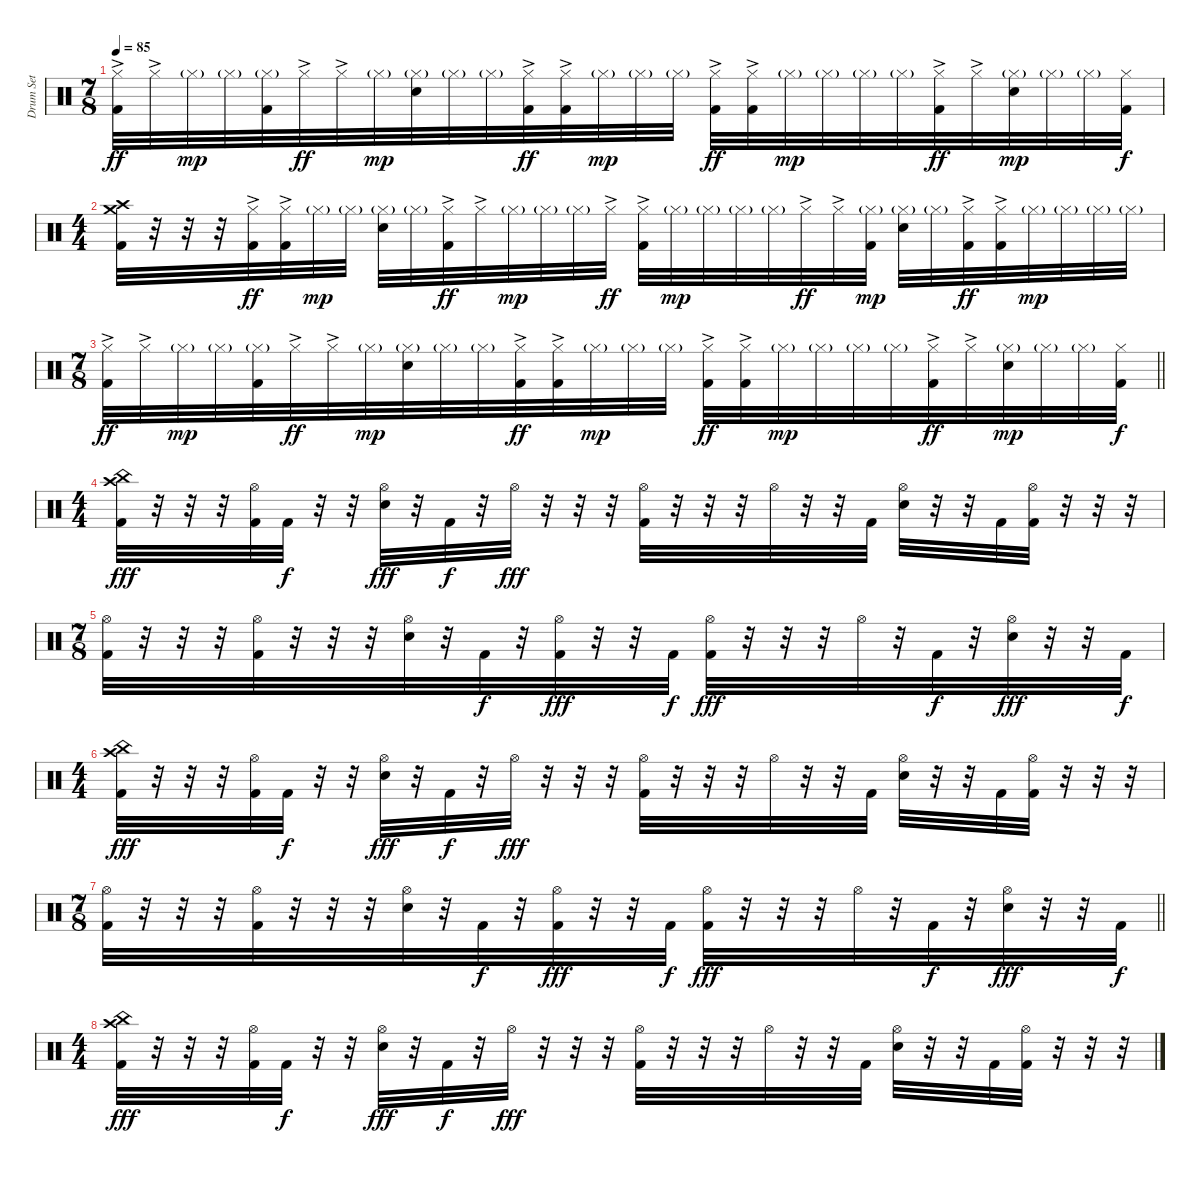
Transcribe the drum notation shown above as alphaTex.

\track ("Drum Set" "Drum Set") {instrument percussion}
\staff {score}
\articulation defaults
\ts (7 8)
\tempo 85
\clef neutral
\ks c
("Hi-Hat (closed)"{ac} "Kick (hit) 2").32{dy ff} "Hi-Hat (closed)"{ac}.32 "Hi-Hat (closed)"{g}.32{dy mp} "Hi-Hat (closed)"{g}.32 ("Hi-Hat (closed)"{g} "Kick (hit) 2").32 "Hi-Hat (closed)"{ac}.32{dy ff} "Hi-Hat (closed)"{ac}.32 "Hi-Hat (closed)"{g}.32{dy mp} ("Hi-Hat (closed)"{g} "Electric Snare (hit)").32 "Hi-Hat (closed)"{g}.32 "Hi-Hat (closed)"{g}.32 ("Hi-Hat (closed)"{ac} "Kick (hit) 2").32{dy ff} ("Hi-Hat (closed)"{ac} "Kick (hit) 2").32 "Hi-Hat (closed)"{g}.32{dy mp} "Hi-Hat (closed)"{g}.32 "Hi-Hat (closed)"{g}.32 ("Hi-Hat (closed)"{ac} "Kick (hit) 2").32{dy ff} ("Hi-Hat (closed)"{ac} "Kick (hit) 2").32 "Hi-Hat (closed)"{g}.32{dy mp} "Hi-Hat (closed)"{g}.32 "Hi-Hat (closed)"{g}.32 "Hi-Hat (closed)"{g}.32 ("Hi-Hat (closed)"{ac} "Kick (hit) 2").32{dy ff} "Hi-Hat (closed)"{ac}.32 ("Hi-Hat (closed)"{g} "Electric Snare (hit)").32{dy mp} "Hi-Hat (closed)"{g}.32 "Hi-Hat (closed)"{g}.32 ("Hi-Hat (closed)" "Kick (hit) 2").32{dy f} |
\ts (4 4)
("Crash high (hit)" "Crash medium (hit)" "Kick (hit) 2").32 r.32 r.32 r.32 ("Hi-Hat (closed)"{ac} "Kick (hit) 2").32{dy ff} ("Hi-Hat (closed)"{ac} "Kick (hit) 2").32 "Hi-Hat (closed)"{g}.32{dy mp} "Hi-Hat (closed)"{g}.32 ("Hi-Hat (closed)"{g} "Electric Snare (hit)").32 "Hi-Hat (closed)"{g}.32 ("Hi-Hat (closed)"{ac} "Kick (hit) 2").32{dy ff} "Hi-Hat (closed)"{ac}.32 "Hi-Hat (closed)"{g}.32{dy mp} "Hi-Hat (closed)"{g}.32 "Hi-Hat (closed)"{g}.32 "Hi-Hat (closed)"{ac}.32{dy ff} ("Hi-Hat (closed)"{ac} "Kick (hit) 2").32 "Hi-Hat (closed)"{g}.32{dy mp} "Hi-Hat (closed)"{g}.32 "Hi-Hat (closed)"{g}.32 "Hi-Hat (closed)"{g}.32 "Hi-Hat (closed)"{ac}.32{dy ff} "Hi-Hat (closed)"{ac}.32 ("Hi-Hat (closed)"{g} "Kick (hit) 2").32{dy mp} ("Hi-Hat (closed)"{g} "Electric Snare (hit)").32 "Hi-Hat (closed)"{g}.32 ("Hi-Hat (closed)"{ac} "Kick (hit) 2").32{dy ff} ("Hi-Hat (closed)"{ac} "Kick (hit) 2").32 "Hi-Hat (closed)"{g}.32{dy mp} "Hi-Hat (closed)"{g}.32 "Hi-Hat (closed)"{g}.32 "Hi-Hat (closed)"{g}.32 |
\ts (7 8)
\barLineRight lightlight
("Hi-Hat (closed)"{ac} "Kick (hit) 2").32{dy ff} "Hi-Hat (closed)"{ac}.32 "Hi-Hat (closed)"{g}.32{dy mp} "Hi-Hat (closed)"{g}.32 ("Hi-Hat (closed)"{g} "Kick (hit) 2").32 "Hi-Hat (closed)"{ac}.32{dy ff} "Hi-Hat (closed)"{ac}.32 "Hi-Hat (closed)"{g}.32{dy mp} ("Hi-Hat (closed)"{g} "Electric Snare (hit)").32 "Hi-Hat (closed)"{g}.32 "Hi-Hat (closed)"{g}.32 ("Hi-Hat (closed)"{ac} "Kick (hit) 2").32{dy ff} ("Hi-Hat (closed)"{ac} "Kick (hit) 2").32 "Hi-Hat (closed)"{g}.32{dy mp} "Hi-Hat (closed)"{g}.32 "Hi-Hat (closed)"{g}.32 ("Hi-Hat (closed)"{ac} "Kick (hit) 2").32{dy ff} ("Hi-Hat (closed)"{ac} "Kick (hit) 2").32 "Hi-Hat (closed)"{g}.32{dy mp} "Hi-Hat (closed)"{g}.32 "Hi-Hat (closed)"{g}.32 "Hi-Hat (closed)"{g}.32 ("Hi-Hat (closed)"{ac} "Kick (hit) 2").32{dy ff} "Hi-Hat (closed)"{ac}.32 ("Hi-Hat (closed)"{g} "Electric Snare (hit)").32{dy mp} "Hi-Hat (closed)"{g}.32 "Hi-Hat (closed)"{g}.32 ("Hi-Hat (closed)" "Kick (hit) 2").32{dy f} |
\ts (4 4)
("Crash high (hit)" "China (hit)" "Kick (hit) 2").32{dy fff} r.32 r.32 r.32 ("Hi-Hat (open)" "Kick (hit) 2").32 "Kick (hit) 2".32{dy f} r.32 r.32 ("Hi-Hat (open)" "Electric Snare (hit)").32{dy fff} r.32 "Kick (hit) 2".32{dy f} r.32 "Hi-Hat (open)".32{dy fff} r.32 r.32 r.32 ("Hi-Hat (open)" "Kick (hit) 2").32 r.32 r.32 r.32 "Hi-Hat (open)".32 r.32 r.32 "Kick (hit) 2".32 ("Hi-Hat (open)" "Electric Snare (hit)").32 r.32 r.32 "Kick (hit) 2".32 ("Hi-Hat (open)" "Kick (hit) 2").32 r.32 r.32 r.32 |
\ts (7 8)
("Hi-Hat (open)" "Kick (hit) 2").32 r.32 r.32 r.32 ("Hi-Hat (open)" "Kick (hit) 2").32 r.32 r.32 r.32 ("Hi-Hat (open)" "Electric Snare (hit)").32 r.32 "Kick (hit) 2".32{dy f} r.32 ("Hi-Hat (open)" "Kick (hit) 2").32{dy fff} r.32 r.32 "Kick (hit) 2".32{dy f} ("Hi-Hat (open)" "Kick (hit) 2").32{dy fff} r.32 r.32 r.32 "Hi-Hat (open)".32 r.32 "Kick (hit) 2".32{dy f} r.32 ("Hi-Hat (open)" "Electric Snare (hit)").32{dy fff} r.32 r.32 "Kick (hit) 2".32{dy f} |
\ts (4 4)
("Crash high (hit)" "China (hit)" "Kick (hit) 2").32{dy fff} r.32 r.32 r.32 ("Hi-Hat (open)" "Kick (hit) 2").32 "Kick (hit) 2".32{dy f} r.32 r.32 ("Hi-Hat (open)" "Electric Snare (hit)").32{dy fff} r.32 "Kick (hit) 2".32{dy f} r.32 "Hi-Hat (open)".32{dy fff} r.32 r.32 r.32 ("Hi-Hat (open)" "Kick (hit) 2").32 r.32 r.32 r.32 "Hi-Hat (open)".32 r.32 r.32 "Kick (hit) 2".32 ("Hi-Hat (open)" "Electric Snare (hit)").32 r.32 r.32 "Kick (hit) 2".32 ("Hi-Hat (open)" "Kick (hit) 2").32 r.32 r.32 r.32 |
\ts (7 8)
\barLineRight lightlight
("Hi-Hat (open)" "Kick (hit) 2").32 r.32 r.32 r.32 ("Hi-Hat (open)" "Kick (hit) 2").32 r.32 r.32 r.32 ("Hi-Hat (open)" "Electric Snare (hit)").32 r.32 "Kick (hit) 2".32{dy f} r.32 ("Hi-Hat (open)" "Kick (hit) 2").32{dy fff} r.32 r.32 "Kick (hit) 2".32{dy f} ("Hi-Hat (open)" "Kick (hit) 2").32{dy fff} r.32 r.32 r.32 "Hi-Hat (open)".32 r.32 "Kick (hit) 2".32{dy f} r.32 ("Hi-Hat (open)" "Electric Snare (hit)").32{dy fff} r.32 r.32 "Kick (hit) 2".32{dy f} |
\ts (4 4)
("Crash high (hit)" "China (hit)" "Kick (hit) 2").32{dy fff} r.32 r.32 r.32 ("Hi-Hat (open)" "Kick (hit) 2").32 "Kick (hit) 2".32{dy f} r.32 r.32 ("Hi-Hat (open)" "Electric Snare (hit)").32{dy fff} r.32 "Kick (hit) 2".32{dy f} r.32 "Hi-Hat (open)".32{dy fff} r.32 r.32 r.32 ("Hi-Hat (open)" "Kick (hit) 2").32 r.32 r.32 r.32 "Hi-Hat (open)".32 r.32 r.32 "Kick (hit) 2".32 ("Hi-Hat (open)" "Electric Snare (hit)").32 r.32 r.32 "Kick (hit) 2".32 ("Hi-Hat (open)" "Kick (hit) 2").32 r.32 r.32 r.32
